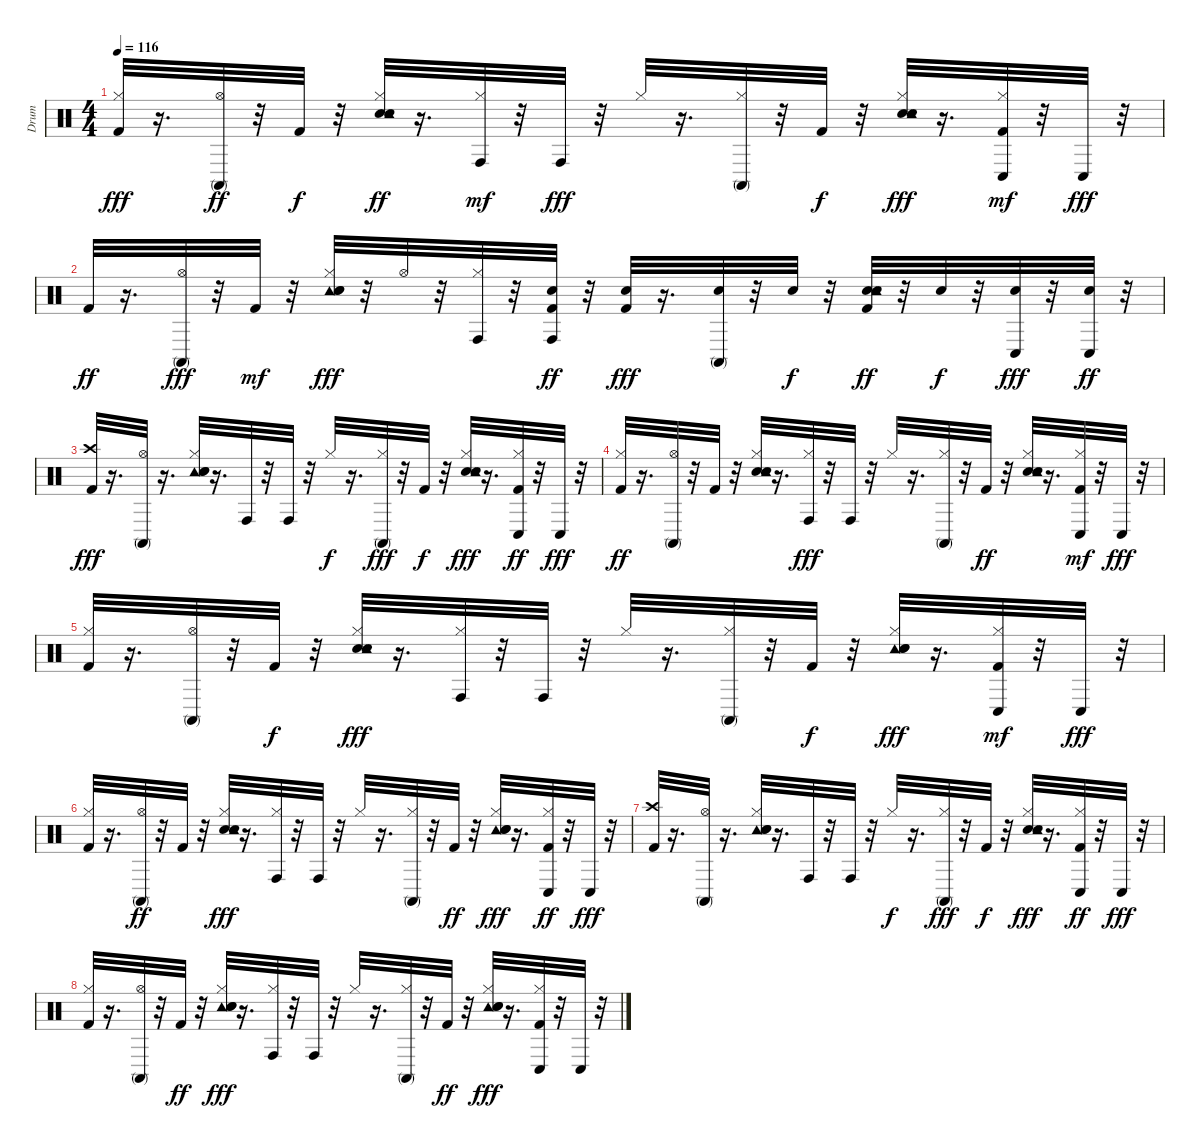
\track ("Drum" "Drum") {instrument percussion}
\staff {score}
\articulation defaults
\ts (4 4)
\tempo 116
\clef neutral
\ks c
("Hi-Hat (closed)" "Kick (hit) 2").32{dy fff} r.16{d} ("Conga high (mute)" "Hi-Hat (open)").32{dy ff} r.32 "Kick (hit) 2".32{dy f} r.32 ("Hi-Hat (closed)" "Hand Clap (hit)" "Electric Snare (hit)" "Tambourine (hit)").32{dy ff} r.16{d} ("Conga high (hit)" "Hi-Hat (closed)").32{dy mf} r.32 "Conga high (hit)".32{dy fff} r.32 "Hi-Hat (closed)".32 r.16{d} ("Conga high (mute)" "Hi-Hat (closed)").32 r.32 "Kick (hit) 2".32{dy f} r.32 ("Hand Clap (hit)" "Tambourine (hit)" "Electric Snare (hit)" "Hi-Hat (closed)").32{dy fff} r.16{d} ("Conga low (hit)" "Kick (hit) 2" "Hi-Hat (closed)").32{dy mf} r.32 "Conga low (hit)".32{dy fff} r.32 |
"Kick (hit) 2".32{dy ff} r.16{d} ("Conga high (mute)" "Hi-Hat (open)").32{dy fff} r.32 "Kick (hit) 2".32{dy mf} r.32 ("Hi-Hat (closed)" "Tambourine (hit)" "Electric Snare (hit)" "Hand Clap (hit)").32{dy fff} r.32 "Hi-Hat (open)".32 r.32 ("Hi-Hat (closed)" "Conga high (hit)").32 r.32 ("Conga high (hit)" "Kick (hit) 2" "Electric Snare (hit)").32{dy ff} r.32 ("Kick (hit) 2" "Electric Snare (hit)").32{dy fff} r.16{d} ("Conga high (mute)" "Electric Snare (hit)").32 r.32 "Electric Snare (hit)".32{dy f} r.32 ("Electric Snare (hit)" "Hand Clap (hit)" "Kick (hit) 2" "Tambourine (hit)").32{dy ff} r.32 "Electric Snare (hit)".32{dy f} r.32 ("Electric Snare (hit)" "Conga low (hit)").32{dy fff} r.32 ("Conga low (hit)" "Electric Snare (hit)").32{dy ff} r.32 |
("Crash high (hit)" "Kick (hit) 2").32{dy fff} r.16{d} ("Hi-Hat (open)" "Conga high (mute)").32 r.16{d} ("Hi-Hat (closed)" "Tambourine (hit)" "Electric Snare (hit)" "Hand Clap (hit)").32 r.16{d} "Conga high (hit)".32 r.32 "Conga high (hit)".32 r.32 "Hi-Hat (closed)".32{dy f} r.16{d} ("Conga high (mute)" "Hi-Hat (closed)").32{dy fff} r.32 "Kick (hit) 2".32{dy f} r.32 ("Hand Clap (hit)" "Hi-Hat (closed)" "Tambourine (hit)" "Electric Snare (hit)").32{dy fff} r.16{d} ("Conga low (hit)" "Hi-Hat (closed)" "Kick (hit) 2").32{dy ff} r.32 "Conga low (hit)".32{dy fff} r.32 |
("Kick (hit) 2" "Hi-Hat (closed)").32{dy ff} r.16{d} ("Conga high (mute)" "Hi-Hat (open)").32 r.32 "Kick (hit) 2".32 r.32 ("Electric Snare (hit)" "Tambourine (hit)" "Hand Clap (hit)" "Hi-Hat (closed)").32 r.16{d} ("Hi-Hat (closed)" "Conga high (hit)").32{dy fff} r.32 "Conga high (hit)".32 r.32 "Hi-Hat (closed)".32 r.16{d} ("Hi-Hat (closed)" "Conga high (mute)").32 r.32 "Kick (hit) 2".32{dy ff} r.32 ("Hi-Hat (closed)" "Electric Snare (hit)" "Hand Clap (hit)" "Tambourine (hit)").32 r.16{d} ("Conga low (hit)" "Kick (hit) 2" "Hi-Hat (closed)").32{dy mf} r.32 "Conga low (hit)".32{dy fff} r.32 |
("Kick (hit) 2" "Hi-Hat (closed)").32 r.16{d} ("Hi-Hat (open)" "Conga high (mute)").32 r.32 "Kick (hit) 2".32{dy f} r.32 ("Electric Snare (hit)" "Hand Clap (hit)" "Hi-Hat (closed)" "Tambourine (hit)").32{dy fff} r.16{d} ("Hi-Hat (closed)" "Conga high (hit)").32 r.32 "Conga high (hit)".32 r.32 "Hi-Hat (closed)".32 r.16{d} ("Conga high (mute)" "Hi-Hat (closed)").32 r.32 "Kick (hit) 2".32{dy f} r.32 ("Hi-Hat (closed)" "Tambourine (hit)" "Hand Clap (hit)" "Electric Snare (hit)").32{dy fff} r.16{d} ("Conga low (hit)" "Hi-Hat (closed)" "Kick (hit) 2").32{dy mf} r.32 "Conga low (hit)".32{dy fff} r.32 |
("Hi-Hat (closed)" "Kick (hit) 2").32 r.16{d} ("Conga high (mute)" "Hi-Hat (open)").32{dy ff} r.32 "Kick (hit) 2".32 r.32 ("Hi-Hat (closed)" "Hand Clap (hit)" "Tambourine (hit)" "Electric Snare (hit)").32{dy fff} r.16{d} ("Conga high (hit)" "Hi-Hat (closed)").32 r.32 "Conga high (hit)".32 r.32 "Hi-Hat (closed)".32 r.16{d} ("Hi-Hat (closed)" "Conga high (mute)").32 r.32 "Kick (hit) 2".32{dy ff} r.32 ("Tambourine (hit)" "Hi-Hat (closed)" "Hand Clap (hit)" "Electric Snare (hit)").32{dy fff} r.16{d} ("Conga low (hit)" "Hi-Hat (closed)" "Kick (hit) 2").32{dy ff} r.32 "Conga low (hit)".32{dy fff} r.32 |
("Kick (hit) 2" "Crash high (hit)").32 r.16{d} ("Hi-Hat (open)" "Conga high (mute)").32 r.16{d} ("Tambourine (hit)" "Hi-Hat (closed)" "Hand Clap (hit)" "Electric Snare (hit)").32 r.16{d} "Conga high (hit)".32 r.32 "Conga high (hit)".32 r.32 "Hi-Hat (closed)".32{dy f} r.16{d} ("Hi-Hat (closed)" "Conga high (mute)").32{dy fff} r.32 "Kick (hit) 2".32{dy f} r.32 ("Electric Snare (hit)" "Hi-Hat (closed)" "Tambourine (hit)" "Hand Clap (hit)").32{dy fff} r.16{d} ("Hi-Hat (closed)" "Conga low (hit)" "Kick (hit) 2").32{dy ff} r.32 "Conga low (hit)".32{dy fff} r.32 |
("Hi-Hat (closed)" "Kick (hit) 2").32 r.16{d} ("Hi-Hat (open)" "Conga high (mute)").32 r.32 "Kick (hit) 2".32{dy ff} r.32 ("Tambourine (hit)" "Hi-Hat (closed)" "Hand Clap (hit)" "Electric Snare (hit)").32{dy fff} r.16{d} ("Hi-Hat (closed)" "Conga high (hit)").32 r.32 "Conga high (hit)".32 r.32 "Hi-Hat (closed)".32 r.16{d} ("Hi-Hat (closed)" "Conga high (mute)").32 r.32 "Kick (hit) 2".32{dy ff} r.32 ("Tambourine (hit)" "Electric Snare (hit)" "Hand Clap (hit)" "Hi-Hat (closed)").32{dy fff} r.16{d} ("Kick (hit) 2" "Hi-Hat (closed)" "Conga low (hit)").32 r.32 "Conga low (hit)".32 r.32
